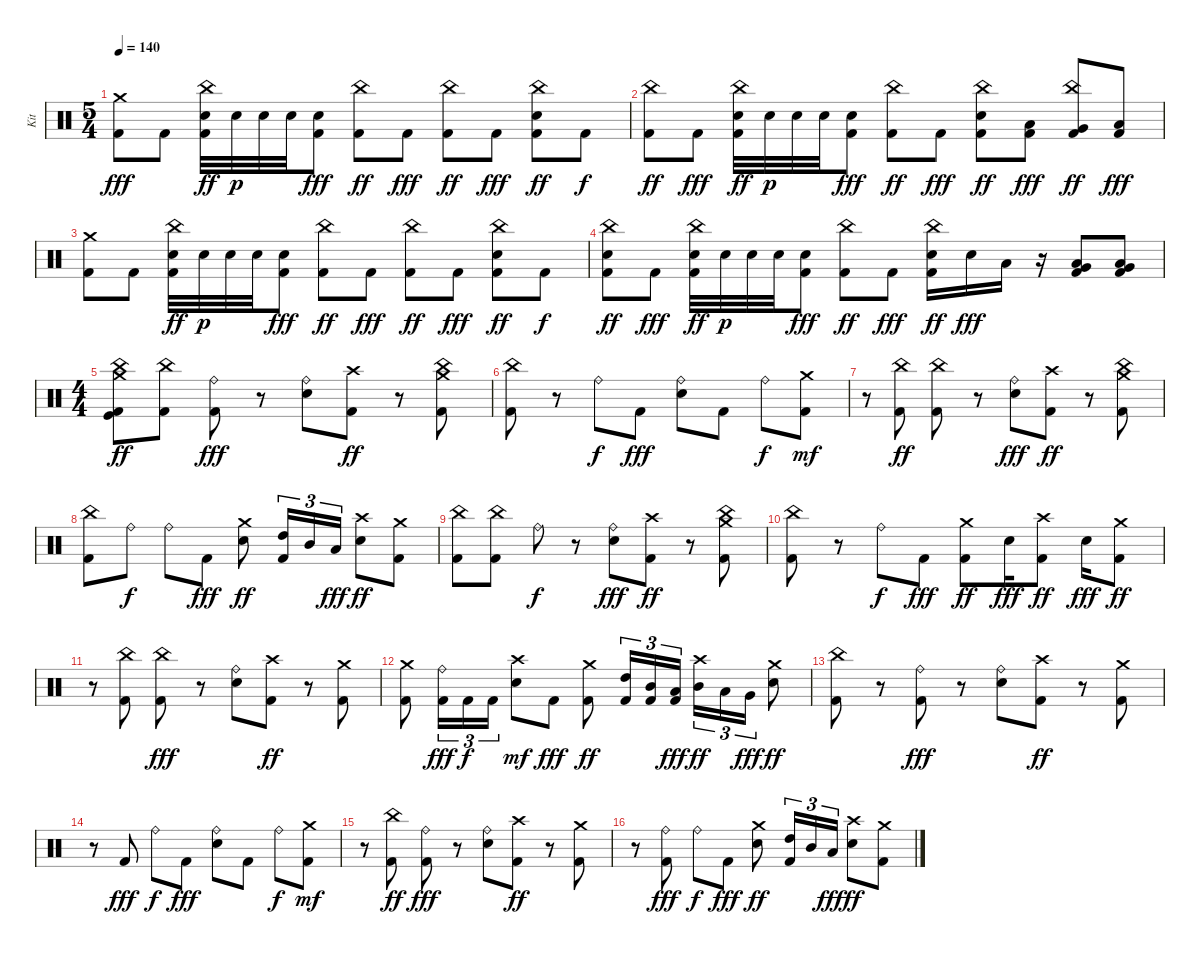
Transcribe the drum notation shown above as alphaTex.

\track ("Kit" "Kit") {instrument percussion}
\staff {score}
\articulation defaults
\ts (5 4)
\tempo 140
\clef neutral
\ks c
("Kick (hit) 2" "Crash medium (hit)").8{dy fff} "Kick (hit) 2".8 ("Kick (hit) 2" "Snare (hit) 2" "China (hit)").32{dy ff} "Snare (hit) 2".32{dy p} "Snare (hit) 2".32 "Snare (hit) 2".32 ("Kick (hit) 2" "Snare (hit) 2").8{dy fff} ("Kick (hit) 2" "China (hit)").8{dy ff} "Kick (hit) 2".8{dy fff} ("Kick (hit) 2" "China (hit)").8{dy ff} "Kick (hit) 2".8{dy fff} ("Kick (hit) 2" "Snare (hit) 2" "China (hit)").8{dy ff} "Kick (hit) 2".8{dy f} |
("Kick (hit) 2" "China (hit)").8{dy ff} "Kick (hit) 2".8{dy fff} ("Kick (hit) 2" "Snare (hit) 2" "China (hit)").32{dy ff} "Snare (hit) 2".32{dy p} "Snare (hit) 2".32 "Snare (hit) 2".32 ("Kick (hit) 2" "Snare (hit) 2").8{dy fff} ("Kick (hit) 2" "China (hit)").8{dy ff} "Kick (hit) 2".8{dy fff} ("Kick (hit) 2" "Snare (hit) 2" "China (hit)").8{dy ff} ("Kick (hit) 2" "Low Tom (hit)").8{dy fff} ("Kick (hit) 2" "Very Low Tom (hit)" "China (hit)").8{dy ff} ("Kick (hit) 2" "Low Floor Tom (hit)").8{dy fff} |
("Kick (hit) 2" "Crash medium (hit)").8 "Kick (hit) 2".8 ("Kick (hit) 2" "Snare (hit) 2" "China (hit)").32{dy ff} "Snare (hit) 2".32{dy p} "Snare (hit) 2".32 "Snare (hit) 2".32 ("Kick (hit) 2" "Snare (hit) 2").8{dy fff} ("Kick (hit) 2" "China (hit)").8{dy ff} "Kick (hit) 2".8{dy fff} ("Kick (hit) 2" "China (hit)").8{dy ff} "Kick (hit) 2".8{dy fff} ("Kick (hit) 2" "Snare (hit) 2" "China (hit)").8{dy ff} "Kick (hit) 2".8{dy f} |
("Kick (hit) 2" "Snare (hit) 2" "China (hit)").8{dy ff} "Kick (hit) 2".8{dy fff} ("Kick (hit) 2" "Snare (hit) 2" "China (hit)").32{dy ff} "Snare (hit) 2".32{dy p} "Snare (hit) 2".32 "Snare (hit) 2".32 ("Kick (hit) 2" "Snare (hit) 2").8{dy fff} ("Kick (hit) 2" "China (hit)").8{dy ff} "Kick (hit) 2".8{dy fff} ("Kick (hit) 2" "Snare (hit) 2" "China (hit)").16{dy ff} "Snare (hit) 2".16{dy fff} "Low Tom (hit)".16 r.16 ("Kick (hit) 2" "Very Low Tom (hit)" "Low Tom (hit)").8 ("Kick (hit) 2" "Low Floor Tom (hit)" "Very Low Tom (hit)").8 |
\ts (4 4)
("Kick (hit)" "Kick (hit) 2" "China (hit)" "Crash medium (hit)").8{dy ff} ("Kick (hit) 2" "China (hit)").8 ("Kick (hit) 2" "Ride (bell)").8{dy fff} r.8 ("Snare (hit) 2" "Ride (bell)").8 ("Kick (hit) 2" "Crash high (hit)").8{dy ff} r.8 ("Kick (hit) 2" "China (hit)" "Crash medium (hit)").8 |
("Kick (hit) 2" "China (hit)").8 r.8 "Ride (bell)".8{dy f} "Kick (hit) 2".8{dy fff} ("Snare (hit) 2" "Ride (bell)").8 "Kick (hit) 2".8 "Ride (bell)".8{dy f} ("Kick (hit) 2" "Crash medium (hit)").8{dy mf} |
r.8 ("Kick (hit) 2" "China (hit)").8{dy ff} ("Kick (hit) 2" "China (hit)").8 r.8 ("Snare (hit) 2" "Ride (bell)").8{dy fff} ("Kick (hit) 2" "Crash high (hit)").8{dy ff} r.8 ("Kick (hit) 2" "China (hit)" "Crash medium (hit)").8 |
("Kick (hit) 2" "China (hit)").8 "Ride (bell)".8{dy f} "Ride (bell)".8 "Kick (hit) 2".8{dy fff} ("Snare (hit) 2" "Crash medium (hit)").8{dy ff} ("Kick (hit) 2" "High Tom (hit)").16{tu (3 2)} "Mid Tom (hit)".16{tu (3 2)} "Low Tom (hit)".16{tu (3 2) dy fff} ("Snare (hit) 2" "Crash high (hit)").8{dy ff} ("Kick (hit) 2" "Crash medium (hit)").8 |
("Kick (hit) 2" "China (hit)").8 ("Kick (hit) 2" "China (hit)").8 "Ride (bell)".8{dy f} r.8 ("Snare (hit) 2" "Ride (bell)").8{dy fff} ("Kick (hit) 2" "Crash high (hit)").8{dy ff} r.8 ("Kick (hit) 2" "China (hit)" "Crash medium (hit)").8 |
("Kick (hit) 2" "China (hit)").8 r.8 "Ride (bell)".8{dy f} "Kick (hit) 2".8{dy fff} ("Kick (hit) 2" "Crash medium (hit)").8{dy ff} "Snare (hit) 2".16{dy fff} ("Kick (hit) 2" "Crash high (hit)").8{dy ff} "Snare (hit) 2".16{dy fff} ("Kick (hit) 2" "Crash medium (hit)").8{dy ff} |
r.8 ("Kick (hit) 2" "China (hit)").8 ("Kick (hit) 2" "China (hit)").8{dy fff} r.8 ("Snare (hit) 2" "Ride (bell)").8 ("Kick (hit) 2" "Crash high (hit)").8{dy ff} r.8 ("Kick (hit) 2" "Crash medium (hit)").8 |
("Kick (hit) 2" "Crash medium (hit)").8 ("Kick (hit) 2" "Ride (bell)").16{tu (3 2) dy fff} "Kick (hit) 2".16{tu (3 2) dy f} "Kick (hit) 2".16{tu (3 2)} ("Snare (hit) 2" "Crash high (hit)").8{dy mf} "Kick (hit) 2".8{dy fff} ("Kick (hit) 2" "Crash medium (hit)").8{dy ff} ("Kick (hit) 2" "High Tom (hit)").16{tu (3 2)} ("Kick (hit) 2" "Mid Tom (hit)").16{tu (3 2)} ("Kick (hit) 2" "Low Tom (hit)").16{tu (3 2) dy fff} ("Mid Tom (hit)" "Crash high (hit)").16{tu (3 2) dy ff} "Low Tom (hit)".16{tu (3 2)} "Very Low Tom (hit)".16{tu (3 2) dy fff} ("Snare (hit) 2" "Crash medium (hit)").8{dy ff} |
("Kick (hit) 2" "China (hit)").8 r.8 ("Kick (hit) 2" "Ride (bell)").8{dy fff} r.8 ("Snare (hit) 2" "Ride (bell)").8 ("Kick (hit) 2" "Crash high (hit)").8{dy ff} r.8 ("Kick (hit) 2" "Crash medium (hit)").8 |
r.8 "Kick (hit) 2".8{dy fff} "Ride (bell)".8{dy f} "Kick (hit) 2".8{dy fff} ("Snare (hit) 2" "Ride (bell)").8 "Kick (hit) 2".8 "Ride (bell)".8{dy f} ("Kick (hit) 2" "Crash medium (hit)").8{dy mf} |
r.8 ("Kick (hit) 2" "China (hit)").8{dy ff} ("Kick (hit) 2" "Ride (bell)").8{dy fff} r.8 ("Snare (hit) 2" "Ride (bell)").8 ("Kick (hit) 2" "Crash high (hit)").8{dy ff} r.8 ("Kick (hit) 2" "Crash medium (hit)").8 |
r.8 ("Kick (hit) 2" "Ride (bell)").8{dy fff} "Ride (bell)".8{dy f} "Kick (hit) 2".8{dy fff} ("Snare (hit) 2" "Crash medium (hit)").8{dy ff} ("Kick (hit) 2" "High Tom (hit)").16{tu (3 2)} "Mid Tom (hit)".16{tu (3 2)} "Low Tom (hit)".16{tu (3 2) dy fff} ("Snare (hit) 2" "Crash high (hit)").8{dy ff} ("Kick (hit) 2" "Crash medium (hit)").8
